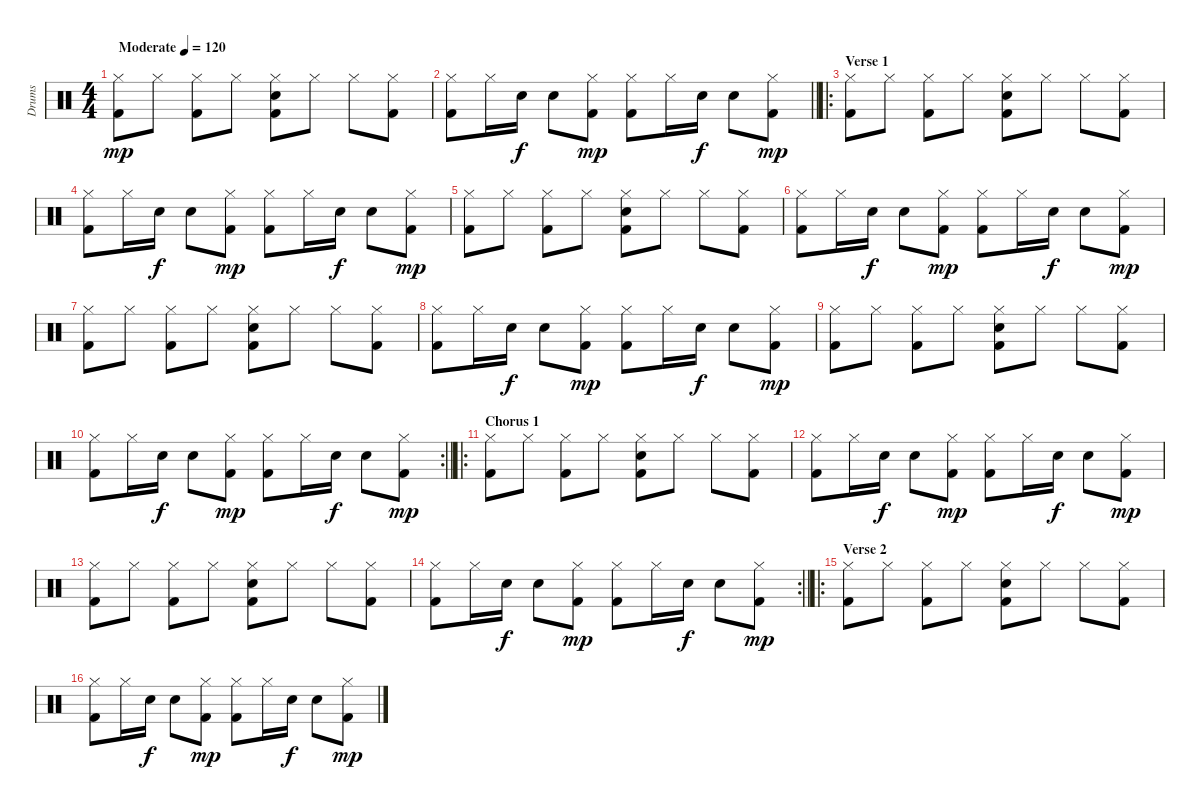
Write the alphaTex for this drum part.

\track ("Drums" "Drums") {instrument percussion}
\staff {score}
\articulation defaults
\ts (4 4)
\tempo (120 "Moderate")
\clef neutral
\ks c
("Hi-Hat (closed)" "Kick (hit) 2").8{dy mp} "Hi-Hat (closed)".8 ("Hi-Hat (closed)" "Kick (hit) 2").8 "Hi-Hat (closed)".8 ("Hi-Hat (closed)" "Electric Snare (hit)" "Kick (hit) 2").8 "Hi-Hat (closed)".8 "Hi-Hat (closed)".8 ("Hi-Hat (closed)" "Kick (hit) 2").8 |
\barLineRight lightlight
("Hi-Hat (closed)" "Kick (hit) 2").8 "Hi-Hat (closed)".16 "Electric Snare (hit)".16{dy f} "Electric Snare (hit)".8 ("Hi-Hat (closed)" "Kick (hit) 2").8{dy mp} ("Hi-Hat (closed)" "Kick (hit) 2").8 "Hi-Hat (closed)".16 "Electric Snare (hit)".16{dy f} "Electric Snare (hit)".8 ("Hi-Hat (closed)" "Kick (hit) 2").8{dy mp} |
\ro
\section ("" "Verse 1")
("Hi-Hat (closed)" "Kick (hit) 2").8 "Hi-Hat (closed)".8 ("Hi-Hat (closed)" "Kick (hit) 2").8 "Hi-Hat (closed)".8 ("Hi-Hat (closed)" "Electric Snare (hit)" "Kick (hit) 2").8 "Hi-Hat (closed)".8 "Hi-Hat (closed)".8 ("Hi-Hat (closed)" "Kick (hit) 2").8 |
("Hi-Hat (closed)" "Kick (hit) 2").8 "Hi-Hat (closed)".16 "Electric Snare (hit)".16{dy f} "Electric Snare (hit)".8 ("Hi-Hat (closed)" "Kick (hit) 2").8{dy mp} ("Hi-Hat (closed)" "Kick (hit) 2").8 "Hi-Hat (closed)".16 "Electric Snare (hit)".16{dy f} "Electric Snare (hit)".8 ("Hi-Hat (closed)" "Kick (hit) 2").8{dy mp} |
("Hi-Hat (closed)" "Kick (hit) 2").8 "Hi-Hat (closed)".8 ("Hi-Hat (closed)" "Kick (hit) 2").8 "Hi-Hat (closed)".8 ("Hi-Hat (closed)" "Electric Snare (hit)" "Kick (hit) 2").8 "Hi-Hat (closed)".8 "Hi-Hat (closed)".8 ("Hi-Hat (closed)" "Kick (hit) 2").8 |
("Hi-Hat (closed)" "Kick (hit) 2").8 "Hi-Hat (closed)".16 "Electric Snare (hit)".16{dy f} "Electric Snare (hit)".8 ("Hi-Hat (closed)" "Kick (hit) 2").8{dy mp} ("Hi-Hat (closed)" "Kick (hit) 2").8 "Hi-Hat (closed)".16 "Electric Snare (hit)".16{dy f} "Electric Snare (hit)".8 ("Hi-Hat (closed)" "Kick (hit) 2").8{dy mp} |
("Hi-Hat (closed)" "Kick (hit) 2").8 "Hi-Hat (closed)".8 ("Hi-Hat (closed)" "Kick (hit) 2").8 "Hi-Hat (closed)".8 ("Hi-Hat (closed)" "Electric Snare (hit)" "Kick (hit) 2").8 "Hi-Hat (closed)".8 "Hi-Hat (closed)".8 ("Hi-Hat (closed)" "Kick (hit) 2").8 |
("Hi-Hat (closed)" "Kick (hit) 2").8 "Hi-Hat (closed)".16 "Electric Snare (hit)".16{dy f} "Electric Snare (hit)".8 ("Hi-Hat (closed)" "Kick (hit) 2").8{dy mp} ("Hi-Hat (closed)" "Kick (hit) 2").8 "Hi-Hat (closed)".16 "Electric Snare (hit)".16{dy f} "Electric Snare (hit)".8 ("Hi-Hat (closed)" "Kick (hit) 2").8{dy mp} |
("Hi-Hat (closed)" "Kick (hit) 2").8 "Hi-Hat (closed)".8 ("Hi-Hat (closed)" "Kick (hit) 2").8 "Hi-Hat (closed)".8 ("Hi-Hat (closed)" "Electric Snare (hit)" "Kick (hit) 2").8 "Hi-Hat (closed)".8 "Hi-Hat (closed)".8 ("Hi-Hat (closed)" "Kick (hit) 2").8 |
\rc 2
\barLineRight lightlight
("Hi-Hat (closed)" "Kick (hit) 2").8 "Hi-Hat (closed)".16 "Electric Snare (hit)".16{dy f} "Electric Snare (hit)".8 ("Hi-Hat (closed)" "Kick (hit) 2").8{dy mp} ("Hi-Hat (closed)" "Kick (hit) 2").8 "Hi-Hat (closed)".16 "Electric Snare (hit)".16{dy f} "Electric Snare (hit)".8 ("Hi-Hat (closed)" "Kick (hit) 2").8{dy mp} |
\ro
\section ("" "Chorus 1")
("Hi-Hat (closed)" "Kick (hit) 2").8 "Hi-Hat (closed)".8 ("Hi-Hat (closed)" "Kick (hit) 2").8 "Hi-Hat (closed)".8 ("Hi-Hat (closed)" "Electric Snare (hit)" "Kick (hit) 2").8 "Hi-Hat (closed)".8 "Hi-Hat (closed)".8 ("Hi-Hat (closed)" "Kick (hit) 2").8 |
("Hi-Hat (closed)" "Kick (hit) 2").8 "Hi-Hat (closed)".16 "Electric Snare (hit)".16{dy f} "Electric Snare (hit)".8 ("Hi-Hat (closed)" "Kick (hit) 2").8{dy mp} ("Hi-Hat (closed)" "Kick (hit) 2").8 "Hi-Hat (closed)".16 "Electric Snare (hit)".16{dy f} "Electric Snare (hit)".8 ("Hi-Hat (closed)" "Kick (hit) 2").8{dy mp} |
("Hi-Hat (closed)" "Kick (hit) 2").8 "Hi-Hat (closed)".8 ("Hi-Hat (closed)" "Kick (hit) 2").8 "Hi-Hat (closed)".8 ("Hi-Hat (closed)" "Electric Snare (hit)" "Kick (hit) 2").8 "Hi-Hat (closed)".8 "Hi-Hat (closed)".8 ("Hi-Hat (closed)" "Kick (hit) 2").8 |
\rc 2
\barLineRight lightlight
("Hi-Hat (closed)" "Kick (hit) 2").8 "Hi-Hat (closed)".16 "Electric Snare (hit)".16{dy f} "Electric Snare (hit)".8 ("Hi-Hat (closed)" "Kick (hit) 2").8{dy mp} ("Hi-Hat (closed)" "Kick (hit) 2").8 "Hi-Hat (closed)".16 "Electric Snare (hit)".16{dy f} "Electric Snare (hit)".8 ("Hi-Hat (closed)" "Kick (hit) 2").8{dy mp} |
\ro
\section ("" "Verse 2")
("Hi-Hat (closed)" "Kick (hit) 2").8 "Hi-Hat (closed)".8 ("Hi-Hat (closed)" "Kick (hit) 2").8 "Hi-Hat (closed)".8 ("Hi-Hat (closed)" "Electric Snare (hit)" "Kick (hit) 2").8 "Hi-Hat (closed)".8 "Hi-Hat (closed)".8 ("Hi-Hat (closed)" "Kick (hit) 2").8 |
("Hi-Hat (closed)" "Kick (hit) 2").8 "Hi-Hat (closed)".16 "Electric Snare (hit)".16{dy f} "Electric Snare (hit)".8 ("Hi-Hat (closed)" "Kick (hit) 2").8{dy mp} ("Hi-Hat (closed)" "Kick (hit) 2").8 "Hi-Hat (closed)".16 "Electric Snare (hit)".16{dy f} "Electric Snare (hit)".8 ("Hi-Hat (closed)" "Kick (hit) 2").8{dy mp}
